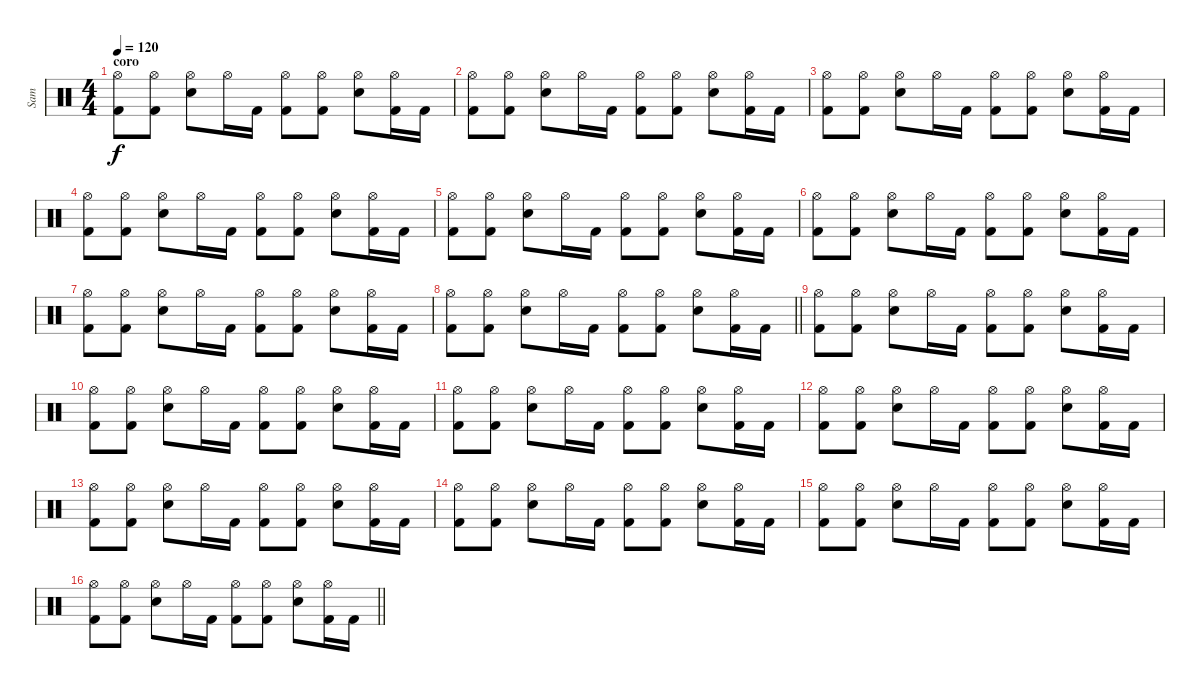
\track ("Sam" "Sam") {instrument percussion}
\staff {score}
\articulation defaults
\ts (4 4)
\section ("" "coro")
\tempo 120
\clef neutral
\ks c
("Hi-Hat (open)" "Kick (hit) 2").8{dy f} ("Hi-Hat (open)" "Kick (hit) 2").8 ("Hi-Hat (open)" "Electric Snare (hit)").8 "Hi-Hat (open)".16 "Kick (hit) 2".16 ("Hi-Hat (open)" "Kick (hit) 2").8 ("Hi-Hat (open)" "Kick (hit) 2").8 ("Hi-Hat (open)" "Electric Snare (hit)").8 ("Hi-Hat (open)" "Kick (hit) 2").16 "Kick (hit) 2".16 |
("Hi-Hat (open)" "Kick (hit) 2").8 ("Hi-Hat (open)" "Kick (hit) 2").8 ("Hi-Hat (open)" "Electric Snare (hit)").8 "Hi-Hat (open)".16 "Kick (hit) 2".16 ("Hi-Hat (open)" "Kick (hit) 2").8 ("Hi-Hat (open)" "Kick (hit) 2").8 ("Hi-Hat (open)" "Electric Snare (hit)").8 ("Hi-Hat (open)" "Kick (hit) 2").16 "Kick (hit) 2".16 |
("Hi-Hat (open)" "Kick (hit) 2").8 ("Hi-Hat (open)" "Kick (hit) 2").8 ("Hi-Hat (open)" "Electric Snare (hit)").8 "Hi-Hat (open)".16 "Kick (hit) 2".16 ("Hi-Hat (open)" "Kick (hit) 2").8 ("Hi-Hat (open)" "Kick (hit) 2").8 ("Hi-Hat (open)" "Electric Snare (hit)").8 ("Hi-Hat (open)" "Kick (hit) 2").16 "Kick (hit) 2".16 |
("Hi-Hat (open)" "Kick (hit) 2").8 ("Hi-Hat (open)" "Kick (hit) 2").8 ("Hi-Hat (open)" "Electric Snare (hit)").8 "Hi-Hat (open)".16 "Kick (hit) 2".16 ("Hi-Hat (open)" "Kick (hit) 2").8 ("Hi-Hat (open)" "Kick (hit) 2").8 ("Hi-Hat (open)" "Electric Snare (hit)").8 ("Hi-Hat (open)" "Kick (hit) 2").16 "Kick (hit) 2".16 |
("Hi-Hat (open)" "Kick (hit) 2").8 ("Hi-Hat (open)" "Kick (hit) 2").8 ("Hi-Hat (open)" "Electric Snare (hit)").8 "Hi-Hat (open)".16 "Kick (hit) 2".16 ("Hi-Hat (open)" "Kick (hit) 2").8 ("Hi-Hat (open)" "Kick (hit) 2").8 ("Hi-Hat (open)" "Electric Snare (hit)").8 ("Hi-Hat (open)" "Kick (hit) 2").16 "Kick (hit) 2".16 |
("Hi-Hat (open)" "Kick (hit) 2").8 ("Hi-Hat (open)" "Kick (hit) 2").8 ("Hi-Hat (open)" "Electric Snare (hit)").8 "Hi-Hat (open)".16 "Kick (hit) 2".16 ("Hi-Hat (open)" "Kick (hit) 2").8 ("Hi-Hat (open)" "Kick (hit) 2").8 ("Hi-Hat (open)" "Electric Snare (hit)").8 ("Hi-Hat (open)" "Kick (hit) 2").16 "Kick (hit) 2".16 |
("Hi-Hat (open)" "Kick (hit) 2").8 ("Hi-Hat (open)" "Kick (hit) 2").8 ("Hi-Hat (open)" "Electric Snare (hit)").8 "Hi-Hat (open)".16 "Kick (hit) 2".16 ("Hi-Hat (open)" "Kick (hit) 2").8 ("Hi-Hat (open)" "Kick (hit) 2").8 ("Hi-Hat (open)" "Electric Snare (hit)").8 ("Hi-Hat (open)" "Kick (hit) 2").16 "Kick (hit) 2".16 |
\barLineRight lightlight
("Hi-Hat (open)" "Kick (hit) 2").8 ("Hi-Hat (open)" "Kick (hit) 2").8 ("Hi-Hat (open)" "Electric Snare (hit)").8 "Hi-Hat (open)".16 "Kick (hit) 2".16 ("Hi-Hat (open)" "Kick (hit) 2").8 ("Hi-Hat (open)" "Kick (hit) 2").8 ("Hi-Hat (open)" "Electric Snare (hit)").8 ("Hi-Hat (open)" "Kick (hit) 2").16 "Kick (hit) 2".16 |
("Hi-Hat (open)" "Kick (hit) 2").8 ("Hi-Hat (open)" "Kick (hit) 2").8 ("Hi-Hat (open)" "Electric Snare (hit)").8 "Hi-Hat (open)".16 "Kick (hit) 2".16 ("Hi-Hat (open)" "Kick (hit) 2").8 ("Hi-Hat (open)" "Kick (hit) 2").8 ("Hi-Hat (open)" "Electric Snare (hit)").8 ("Hi-Hat (open)" "Kick (hit) 2").16 "Kick (hit) 2".16 |
("Hi-Hat (open)" "Kick (hit) 2").8 ("Hi-Hat (open)" "Kick (hit) 2").8 ("Hi-Hat (open)" "Electric Snare (hit)").8 "Hi-Hat (open)".16 "Kick (hit) 2".16 ("Hi-Hat (open)" "Kick (hit) 2").8 ("Hi-Hat (open)" "Kick (hit) 2").8 ("Hi-Hat (open)" "Electric Snare (hit)").8 ("Hi-Hat (open)" "Kick (hit) 2").16 "Kick (hit) 2".16 |
("Hi-Hat (open)" "Kick (hit) 2").8 ("Hi-Hat (open)" "Kick (hit) 2").8 ("Hi-Hat (open)" "Electric Snare (hit)").8 "Hi-Hat (open)".16 "Kick (hit) 2".16 ("Hi-Hat (open)" "Kick (hit) 2").8 ("Hi-Hat (open)" "Kick (hit) 2").8 ("Hi-Hat (open)" "Electric Snare (hit)").8 ("Hi-Hat (open)" "Kick (hit) 2").16 "Kick (hit) 2".16 |
("Hi-Hat (open)" "Kick (hit) 2").8 ("Hi-Hat (open)" "Kick (hit) 2").8 ("Hi-Hat (open)" "Electric Snare (hit)").8 "Hi-Hat (open)".16 "Kick (hit) 2".16 ("Hi-Hat (open)" "Kick (hit) 2").8 ("Hi-Hat (open)" "Kick (hit) 2").8 ("Hi-Hat (open)" "Electric Snare (hit)").8 ("Hi-Hat (open)" "Kick (hit) 2").16 "Kick (hit) 2".16 |
("Hi-Hat (open)" "Kick (hit) 2").8 ("Hi-Hat (open)" "Kick (hit) 2").8 ("Hi-Hat (open)" "Electric Snare (hit)").8 "Hi-Hat (open)".16 "Kick (hit) 2".16 ("Hi-Hat (open)" "Kick (hit) 2").8 ("Hi-Hat (open)" "Kick (hit) 2").8 ("Hi-Hat (open)" "Electric Snare (hit)").8 ("Hi-Hat (open)" "Kick (hit) 2").16 "Kick (hit) 2".16 |
("Hi-Hat (open)" "Kick (hit) 2").8 ("Hi-Hat (open)" "Kick (hit) 2").8 ("Hi-Hat (open)" "Electric Snare (hit)").8 "Hi-Hat (open)".16 "Kick (hit) 2".16 ("Hi-Hat (open)" "Kick (hit) 2").8 ("Hi-Hat (open)" "Kick (hit) 2").8 ("Hi-Hat (open)" "Electric Snare (hit)").8 ("Hi-Hat (open)" "Kick (hit) 2").16 "Kick (hit) 2".16 |
("Hi-Hat (open)" "Kick (hit) 2").8 ("Hi-Hat (open)" "Kick (hit) 2").8 ("Hi-Hat (open)" "Electric Snare (hit)").8 "Hi-Hat (open)".16 "Kick (hit) 2".16 ("Hi-Hat (open)" "Kick (hit) 2").8 ("Hi-Hat (open)" "Kick (hit) 2").8 ("Hi-Hat (open)" "Electric Snare (hit)").8 ("Hi-Hat (open)" "Kick (hit) 2").16 "Kick (hit) 2".16 |
\barLineRight lightlight
("Hi-Hat (open)" "Kick (hit) 2").8 ("Hi-Hat (open)" "Kick (hit) 2").8 ("Hi-Hat (open)" "Electric Snare (hit)").8 "Hi-Hat (open)".16 "Kick (hit) 2".16 ("Hi-Hat (open)" "Kick (hit) 2").8 ("Hi-Hat (open)" "Kick (hit) 2").8 ("Hi-Hat (open)" "Electric Snare (hit)").8 ("Hi-Hat (open)" "Kick (hit) 2").16 "Kick (hit) 2".16
